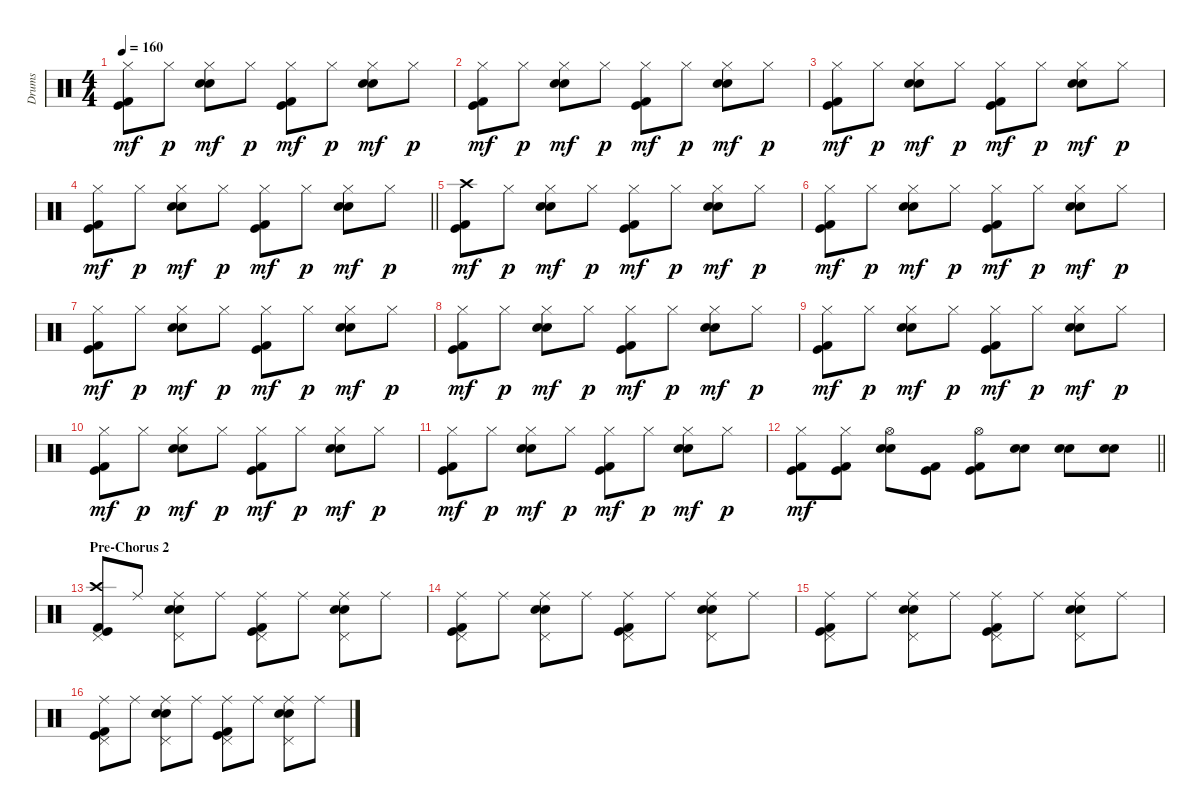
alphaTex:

\track ("Drums" "Drums") {instrument percussion}
\staff {score}
\articulation defaults
\ts (4 4)
\tempo 160
\clef neutral
\ks c
("Hi-Hat (closed)" "Kick (hit) 2" "Kick (hit)").8{dy mf} "Hi-Hat (closed)".8{dy p} ("Hi-Hat (closed)" "Snare (hit) 2" "Electric Snare (hit)").8{dy mf} "Hi-Hat (closed)".8{dy p} ("Hi-Hat (closed)" "Kick (hit) 2" "Kick (hit)").8{dy mf} "Hi-Hat (closed)".8{dy p} ("Hi-Hat (closed)" "Snare (hit) 2" "Electric Snare (hit)").8{dy mf} "Hi-Hat (closed)".8{dy p} |
("Hi-Hat (closed)" "Kick (hit) 2" "Kick (hit)").8{dy mf} "Hi-Hat (closed)".8{dy p} ("Hi-Hat (closed)" "Snare (hit) 2" "Electric Snare (hit)").8{dy mf} "Hi-Hat (closed)".8{dy p} ("Hi-Hat (closed)" "Kick (hit) 2" "Kick (hit)").8{dy mf} "Hi-Hat (closed)".8{dy p} ("Hi-Hat (closed)" "Snare (hit) 2" "Electric Snare (hit)").8{dy mf} "Hi-Hat (closed)".8{dy p} |
("Hi-Hat (closed)" "Kick (hit) 2" "Kick (hit)").8{dy mf} "Hi-Hat (closed)".8{dy p} ("Hi-Hat (closed)" "Snare (hit) 2" "Electric Snare (hit)").8{dy mf} "Hi-Hat (closed)".8{dy p} ("Hi-Hat (closed)" "Kick (hit) 2" "Kick (hit)").8{dy mf} "Hi-Hat (closed)".8{dy p} ("Hi-Hat (closed)" "Snare (hit) 2" "Electric Snare (hit)").8{dy mf} "Hi-Hat (closed)".8{dy p} |
\barLineRight lightlight
("Hi-Hat (closed)" "Kick (hit) 2" "Kick (hit)").8{dy mf} "Hi-Hat (closed)".8{dy p} ("Hi-Hat (closed)" "Snare (hit) 2" "Electric Snare (hit)").8{dy mf} "Hi-Hat (closed)".8{dy p} ("Hi-Hat (closed)" "Kick (hit) 2" "Kick (hit)").8{dy mf} "Hi-Hat (closed)".8{dy p} ("Hi-Hat (closed)" "Snare (hit) 2" "Electric Snare (hit)").8{dy mf} "Hi-Hat (closed)".8{dy p} |
("Crash high (hit)" "Kick (hit) 2" "Kick (hit)").8{dy mf} "Hi-Hat (closed)".8{dy p} ("Hi-Hat (closed)" "Snare (hit) 2" "Electric Snare (hit)").8{dy mf} "Hi-Hat (closed)".8{dy p} ("Hi-Hat (closed)" "Kick (hit) 2" "Kick (hit)").8{dy mf} "Hi-Hat (closed)".8{dy p} ("Hi-Hat (closed)" "Snare (hit) 2" "Electric Snare (hit)").8{dy mf} "Hi-Hat (closed)".8{dy p} |
("Hi-Hat (closed)" "Kick (hit) 2" "Kick (hit)").8{dy mf} "Hi-Hat (closed)".8{dy p} ("Hi-Hat (closed)" "Snare (hit) 2" "Electric Snare (hit)").8{dy mf} "Hi-Hat (closed)".8{dy p} ("Hi-Hat (closed)" "Kick (hit) 2" "Kick (hit)").8{dy mf} "Hi-Hat (closed)".8{dy p} ("Hi-Hat (closed)" "Snare (hit) 2" "Electric Snare (hit)").8{dy mf} "Hi-Hat (closed)".8{dy p} |
("Hi-Hat (closed)" "Kick (hit) 2" "Kick (hit)").8{dy mf} "Hi-Hat (closed)".8{dy p} ("Hi-Hat (closed)" "Snare (hit) 2" "Electric Snare (hit)").8{dy mf} "Hi-Hat (closed)".8{dy p} ("Hi-Hat (closed)" "Kick (hit) 2" "Kick (hit)").8{dy mf} "Hi-Hat (closed)".8{dy p} ("Hi-Hat (closed)" "Snare (hit) 2" "Electric Snare (hit)").8{dy mf} "Hi-Hat (closed)".8{dy p} |
("Hi-Hat (closed)" "Kick (hit) 2" "Kick (hit)").8{dy mf} "Hi-Hat (closed)".8{dy p} ("Hi-Hat (closed)" "Snare (hit) 2" "Electric Snare (hit)").8{dy mf} "Hi-Hat (closed)".8{dy p} ("Hi-Hat (closed)" "Kick (hit) 2" "Kick (hit)").8{dy mf} "Hi-Hat (closed)".8{dy p} ("Hi-Hat (closed)" "Snare (hit) 2" "Electric Snare (hit)").8{dy mf} "Hi-Hat (closed)".8{dy p} |
("Hi-Hat (closed)" "Kick (hit) 2" "Kick (hit)").8{dy mf} "Hi-Hat (closed)".8{dy p} ("Hi-Hat (closed)" "Snare (hit) 2" "Electric Snare (hit)").8{dy mf} "Hi-Hat (closed)".8{dy p} ("Hi-Hat (closed)" "Kick (hit) 2" "Kick (hit)").8{dy mf} "Hi-Hat (closed)".8{dy p} ("Hi-Hat (closed)" "Snare (hit) 2" "Electric Snare (hit)").8{dy mf} "Hi-Hat (closed)".8{dy p} |
("Hi-Hat (closed)" "Kick (hit) 2" "Kick (hit)").8{dy mf} "Hi-Hat (closed)".8{dy p} ("Hi-Hat (closed)" "Snare (hit) 2" "Electric Snare (hit)").8{dy mf} "Hi-Hat (closed)".8{dy p} ("Hi-Hat (closed)" "Kick (hit) 2" "Kick (hit)").8{dy mf} "Hi-Hat (closed)".8{dy p} ("Hi-Hat (closed)" "Snare (hit) 2" "Electric Snare (hit)").8{dy mf} "Hi-Hat (closed)".8{dy p} |
("Hi-Hat (closed)" "Kick (hit) 2" "Kick (hit)").8{dy mf} "Hi-Hat (closed)".8{dy p} ("Hi-Hat (closed)" "Snare (hit) 2" "Electric Snare (hit)").8{dy mf} "Hi-Hat (closed)".8{dy p} ("Hi-Hat (closed)" "Kick (hit) 2" "Kick (hit)").8{dy mf} "Hi-Hat (closed)".8{dy p} ("Hi-Hat (closed)" "Snare (hit) 2" "Electric Snare (hit)").8{dy mf} "Hi-Hat (closed)".8{dy p} |
\barLineRight lightlight
("Hi-Hat (closed)" "Kick (hit) 2" "Kick (hit)").8{dy mf} ("Hi-Hat (closed)" "Kick (hit) 2" "Kick (hit)").8 ("Hi-Hat (open)" "Snare (hit) 2" "Electric Snare (hit)").8 ("Kick (hit) 2" "Kick (hit)").8 ("Hi-Hat (open)" "Kick (hit) 2" "Kick (hit)").8 ("Snare (hit) 2" "Electric Snare (hit)").8 ("Snare (hit) 2" "Electric Snare (hit)").8 ("Snare (hit) 2" "Electric Snare (hit)").8 |
\section ("" "Pre-Chorus 2")
("Crash high (hit)" "Pedal Hi-Hat (hit)" "Kick (hit) 2" "Kick (hit)").8 "Ride (middle)".8 ("Ride (middle)" "Pedal Hi-Hat (hit)" "Snare (hit) 2" "Electric Snare (hit)").8 "Ride (middle)".8 ("Ride (middle)" "Pedal Hi-Hat (hit)" "Kick (hit) 2" "Kick (hit)").8 "Ride (middle)".8 ("Ride (middle)" "Pedal Hi-Hat (hit)" "Snare (hit) 2" "Electric Snare (hit)").8 "Ride (middle)".8 |
("Ride (middle)" "Pedal Hi-Hat (hit)" "Kick (hit) 2" "Kick (hit)").8 "Ride (middle)".8 ("Ride (middle)" "Pedal Hi-Hat (hit)" "Snare (hit) 2" "Electric Snare (hit)").8 "Ride (middle)".8 ("Ride (middle)" "Pedal Hi-Hat (hit)" "Kick (hit) 2" "Kick (hit)").8 "Ride (middle)".8 ("Ride (middle)" "Pedal Hi-Hat (hit)" "Snare (hit) 2" "Electric Snare (hit)").8 "Ride (middle)".8 |
("Ride (middle)" "Pedal Hi-Hat (hit)" "Kick (hit) 2" "Kick (hit)").8 "Ride (middle)".8 ("Ride (middle)" "Pedal Hi-Hat (hit)" "Snare (hit) 2" "Electric Snare (hit)").8 "Ride (middle)".8 ("Ride (middle)" "Pedal Hi-Hat (hit)" "Kick (hit) 2" "Kick (hit)").8 "Ride (middle)".8 ("Ride (middle)" "Pedal Hi-Hat (hit)" "Snare (hit) 2" "Electric Snare (hit)").8 "Ride (middle)".8 |
("Ride (middle)" "Pedal Hi-Hat (hit)" "Kick (hit) 2" "Kick (hit)").8 "Ride (middle)".8 ("Ride (middle)" "Pedal Hi-Hat (hit)" "Snare (hit) 2" "Electric Snare (hit)").8 "Ride (middle)".8 ("Ride (middle)" "Pedal Hi-Hat (hit)" "Kick (hit) 2" "Kick (hit)").8 "Ride (middle)".8 ("Ride (middle)" "Pedal Hi-Hat (hit)" "Snare (hit) 2" "Electric Snare (hit)").8 "Ride (middle)".8
